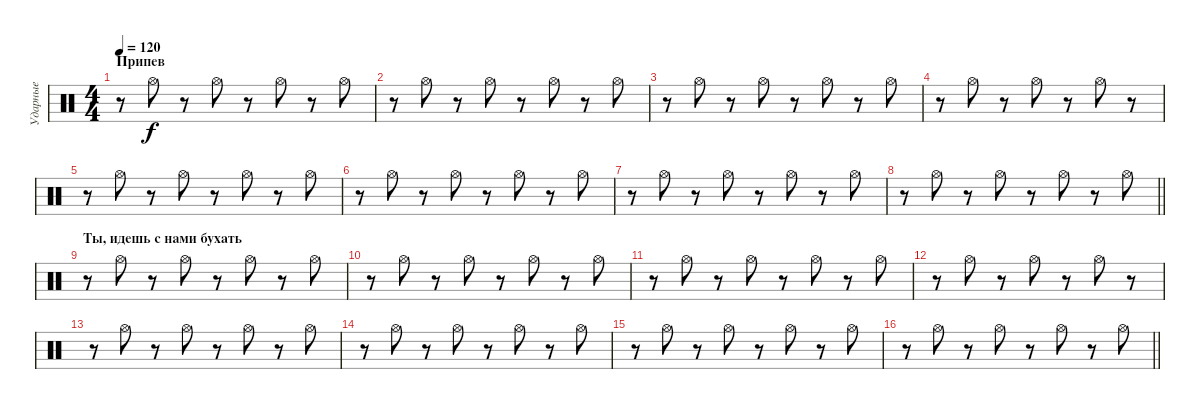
\track ("Ударные" "Ударные") {instrument percussion}
\staff {score}
\articulation defaults
\ts (4 4)
\section ("" "Припев")
\tempo 120
\clef neutral
\ks c
r.8{dy f} "Hi-Hat (open)".8 r.8 "Hi-Hat (open)".8 r.8 "Hi-Hat (open)".8 r.8 "Hi-Hat (open)".8 |
r.8 "Hi-Hat (open)".8 r.8 "Hi-Hat (open)".8 r.8 "Hi-Hat (open)".8 r.8 "Hi-Hat (open)".8 |
r.8 "Hi-Hat (open)".8 r.8 "Hi-Hat (open)".8 r.8 "Hi-Hat (open)".8 r.8 "Hi-Hat (open)".8 |
r.8 "Hi-Hat (open)".8 r.8 "Hi-Hat (open)".8 r.8 "Hi-Hat (open)".8 r.8 |
r.8 "Hi-Hat (open)".8 r.8 "Hi-Hat (open)".8 r.8 "Hi-Hat (open)".8 r.8 "Hi-Hat (open)".8 |
r.8 "Hi-Hat (open)".8 r.8 "Hi-Hat (open)".8 r.8 "Hi-Hat (open)".8 r.8 "Hi-Hat (open)".8 |
r.8 "Hi-Hat (open)".8 r.8 "Hi-Hat (open)".8 r.8 "Hi-Hat (open)".8 r.8 "Hi-Hat (open)".8 |
\barLineRight lightlight
r.8 "Hi-Hat (open)".8 r.8 "Hi-Hat (open)".8 r.8 "Hi-Hat (open)".8 r.8 "Hi-Hat (open)".8 |
\section ("" "Ты, идешь с нами бухать")
r.8 "Hi-Hat (open)".8 r.8 "Hi-Hat (open)".8 r.8 "Hi-Hat (open)".8 r.8 "Hi-Hat (open)".8 |
r.8 "Hi-Hat (open)".8 r.8 "Hi-Hat (open)".8 r.8 "Hi-Hat (open)".8 r.8 "Hi-Hat (open)".8 |
r.8 "Hi-Hat (open)".8 r.8 "Hi-Hat (open)".8 r.8 "Hi-Hat (open)".8 r.8 "Hi-Hat (open)".8 |
r.8 "Hi-Hat (open)".8 r.8 "Hi-Hat (open)".8 r.8 "Hi-Hat (open)".8 r.8 |
r.8 "Hi-Hat (open)".8 r.8 "Hi-Hat (open)".8 r.8 "Hi-Hat (open)".8 r.8 "Hi-Hat (open)".8 |
r.8 "Hi-Hat (open)".8 r.8 "Hi-Hat (open)".8 r.8 "Hi-Hat (open)".8 r.8 "Hi-Hat (open)".8 |
r.8 "Hi-Hat (open)".8 r.8 "Hi-Hat (open)".8 r.8 "Hi-Hat (open)".8 r.8 "Hi-Hat (open)".8 |
\barLineRight lightlight
r.8 "Hi-Hat (open)".8 r.8 "Hi-Hat (open)".8 r.8 "Hi-Hat (open)".8 r.8 "Hi-Hat (open)".8
